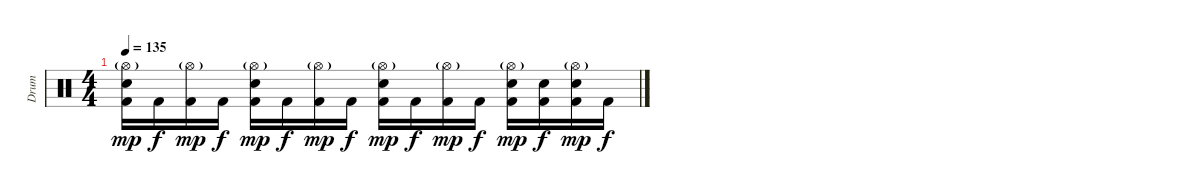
\track ("Drum" "Drum") {instrument percussion}
\staff {score}
\articulation defaults
\ts (4 4)
\tempo 135
\clef neutral
\ks c
("Hi-Hat (open)"{g} "Electric Snare (hit)" "Kick (hit) 2").16{dy mp} "Kick (hit) 2".16{dy f} ("Hi-Hat (open)"{g} "Kick (hit) 2").16{dy mp} "Kick (hit) 2".16{dy f} ("Hi-Hat (open)"{g} "Electric Snare (hit)" "Kick (hit) 2").16{dy mp} "Kick (hit) 2".16{dy f} ("Hi-Hat (open)"{g} "Kick (hit) 2").16{dy mp} "Kick (hit) 2".16{dy f} ("Hi-Hat (open)"{g} "Electric Snare (hit)" "Kick (hit) 2").16{dy mp} "Kick (hit) 2".16{dy f} ("Hi-Hat (open)"{g} "Kick (hit) 2").16{dy mp} "Kick (hit) 2".16{dy f} ("Hi-Hat (open)"{g} "Electric Snare (hit)" "Kick (hit) 2").16{dy mp} ("Electric Snare (hit)" "Kick (hit) 2").16{dy f} ("Hi-Hat (open)"{g} "Electric Snare (hit)" "Kick (hit) 2").16{dy mp} "Kick (hit) 2".16{dy f}
